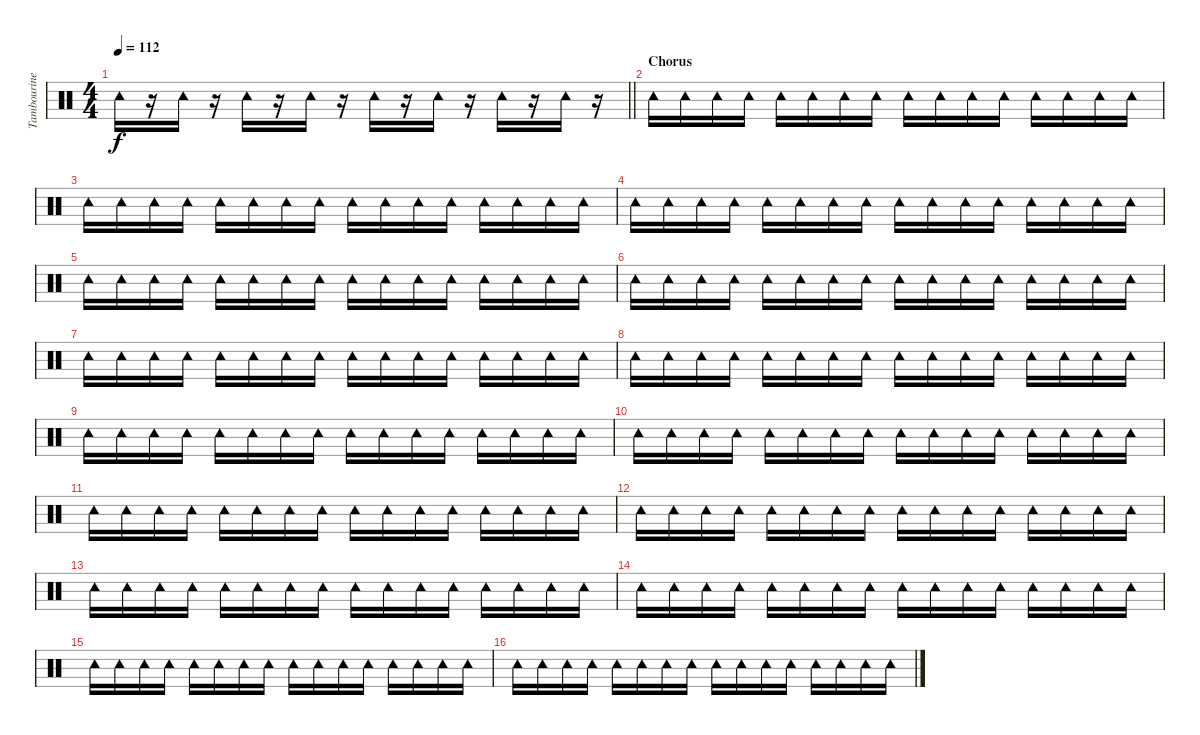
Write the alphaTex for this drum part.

\track ("Tambourine" "Tambourine") {instrument percussion}
\staff {score}
\articulation defaults
\ts (4 4)
\tempo 112
\clef neutral
\barLineRight lightlight
\ks c "Tambourine (hit)".16{dy f}
r.16 "Tambourine (hit)".16 r.16 "Tambourine (hit)".16 r.16 "Tambourine (hit)".16 r.16 "Tambourine (hit)".16 r.16 "Tambourine (hit)".16 r.16 "Tambourine (hit)".16 r.16 "Tambourine (hit)".16 r.16 |
\section ("" "Chorus")
"Tambourine (hit)".16 "Tambourine (hit)".16 "Tambourine (hit)".16 "Tambourine (hit)".16 "Tambourine (hit)".16 "Tambourine (hit)".16 "Tambourine (hit)".16 "Tambourine (hit)".16 "Tambourine (hit)".16 "Tambourine (hit)".16 "Tambourine (hit)".16 "Tambourine (hit)".16 "Tambourine (hit)".16 "Tambourine (hit)".16 "Tambourine (hit)".16 "Tambourine (hit)".16 |
"Tambourine (hit)".16 "Tambourine (hit)".16 "Tambourine (hit)".16 "Tambourine (hit)".16 "Tambourine (hit)".16 "Tambourine (hit)".16 "Tambourine (hit)".16 "Tambourine (hit)".16 "Tambourine (hit)".16 "Tambourine (hit)".16 "Tambourine (hit)".16 "Tambourine (hit)".16 "Tambourine (hit)".16 "Tambourine (hit)".16 "Tambourine (hit)".16 "Tambourine (hit)".16 |
"Tambourine (hit)".16 "Tambourine (hit)".16 "Tambourine (hit)".16 "Tambourine (hit)".16 "Tambourine (hit)".16 "Tambourine (hit)".16 "Tambourine (hit)".16 "Tambourine (hit)".16 "Tambourine (hit)".16 "Tambourine (hit)".16 "Tambourine (hit)".16 "Tambourine (hit)".16 "Tambourine (hit)".16 "Tambourine (hit)".16 "Tambourine (hit)".16 "Tambourine (hit)".16 |
"Tambourine (hit)".16 "Tambourine (hit)".16 "Tambourine (hit)".16 "Tambourine (hit)".16 "Tambourine (hit)".16 "Tambourine (hit)".16 "Tambourine (hit)".16 "Tambourine (hit)".16 "Tambourine (hit)".16 "Tambourine (hit)".16 "Tambourine (hit)".16 "Tambourine (hit)".16 "Tambourine (hit)".16 "Tambourine (hit)".16 "Tambourine (hit)".16 "Tambourine (hit)".16 |
"Tambourine (hit)".16 "Tambourine (hit)".16 "Tambourine (hit)".16 "Tambourine (hit)".16 "Tambourine (hit)".16 "Tambourine (hit)".16 "Tambourine (hit)".16 "Tambourine (hit)".16 "Tambourine (hit)".16 "Tambourine (hit)".16 "Tambourine (hit)".16 "Tambourine (hit)".16 "Tambourine (hit)".16 "Tambourine (hit)".16 "Tambourine (hit)".16 "Tambourine (hit)".16 |
"Tambourine (hit)".16 "Tambourine (hit)".16 "Tambourine (hit)".16 "Tambourine (hit)".16 "Tambourine (hit)".16 "Tambourine (hit)".16 "Tambourine (hit)".16 "Tambourine (hit)".16 "Tambourine (hit)".16 "Tambourine (hit)".16 "Tambourine (hit)".16 "Tambourine (hit)".16 "Tambourine (hit)".16 "Tambourine (hit)".16 "Tambourine (hit)".16 "Tambourine (hit)".16 |
"Tambourine (hit)".16 "Tambourine (hit)".16 "Tambourine (hit)".16 "Tambourine (hit)".16 "Tambourine (hit)".16 "Tambourine (hit)".16 "Tambourine (hit)".16 "Tambourine (hit)".16 "Tambourine (hit)".16 "Tambourine (hit)".16 "Tambourine (hit)".16 "Tambourine (hit)".16 "Tambourine (hit)".16 "Tambourine (hit)".16 "Tambourine (hit)".16 "Tambourine (hit)".16 |
"Tambourine (hit)".16 "Tambourine (hit)".16 "Tambourine (hit)".16 "Tambourine (hit)".16 "Tambourine (hit)".16 "Tambourine (hit)".16 "Tambourine (hit)".16 "Tambourine (hit)".16 "Tambourine (hit)".16 "Tambourine (hit)".16 "Tambourine (hit)".16 "Tambourine (hit)".16 "Tambourine (hit)".16 "Tambourine (hit)".16 "Tambourine (hit)".16 "Tambourine (hit)".16 |
"Tambourine (hit)".16 "Tambourine (hit)".16 "Tambourine (hit)".16 "Tambourine (hit)".16 "Tambourine (hit)".16 "Tambourine (hit)".16 "Tambourine (hit)".16 "Tambourine (hit)".16 "Tambourine (hit)".16 "Tambourine (hit)".16 "Tambourine (hit)".16 "Tambourine (hit)".16 "Tambourine (hit)".16 "Tambourine (hit)".16 "Tambourine (hit)".16 "Tambourine (hit)".16 |
"Tambourine (hit)".16 "Tambourine (hit)".16 "Tambourine (hit)".16 "Tambourine (hit)".16 "Tambourine (hit)".16 "Tambourine (hit)".16 "Tambourine (hit)".16 "Tambourine (hit)".16 "Tambourine (hit)".16 "Tambourine (hit)".16 "Tambourine (hit)".16 "Tambourine (hit)".16 "Tambourine (hit)".16 "Tambourine (hit)".16 "Tambourine (hit)".16 "Tambourine (hit)".16 |
"Tambourine (hit)".16 "Tambourine (hit)".16 "Tambourine (hit)".16 "Tambourine (hit)".16 "Tambourine (hit)".16 "Tambourine (hit)".16 "Tambourine (hit)".16 "Tambourine (hit)".16 "Tambourine (hit)".16 "Tambourine (hit)".16 "Tambourine (hit)".16 "Tambourine (hit)".16 "Tambourine (hit)".16 "Tambourine (hit)".16 "Tambourine (hit)".16 "Tambourine (hit)".16 |
"Tambourine (hit)".16 "Tambourine (hit)".16 "Tambourine (hit)".16 "Tambourine (hit)".16 "Tambourine (hit)".16 "Tambourine (hit)".16 "Tambourine (hit)".16 "Tambourine (hit)".16 "Tambourine (hit)".16 "Tambourine (hit)".16 "Tambourine (hit)".16 "Tambourine (hit)".16 "Tambourine (hit)".16 "Tambourine (hit)".16 "Tambourine (hit)".16 "Tambourine (hit)".16 |
"Tambourine (hit)".16 "Tambourine (hit)".16 "Tambourine (hit)".16 "Tambourine (hit)".16 "Tambourine (hit)".16 "Tambourine (hit)".16 "Tambourine (hit)".16 "Tambourine (hit)".16 "Tambourine (hit)".16 "Tambourine (hit)".16 "Tambourine (hit)".16 "Tambourine (hit)".16 "Tambourine (hit)".16 "Tambourine (hit)".16 "Tambourine (hit)".16 "Tambourine (hit)".16 |
"Tambourine (hit)".16 "Tambourine (hit)".16 "Tambourine (hit)".16 "Tambourine (hit)".16 "Tambourine (hit)".16 "Tambourine (hit)".16 "Tambourine (hit)".16 "Tambourine (hit)".16 "Tambourine (hit)".16 "Tambourine (hit)".16 "Tambourine (hit)".16 "Tambourine (hit)".16 "Tambourine (hit)".16 "Tambourine (hit)".16 "Tambourine (hit)".16 "Tambourine (hit)".16 |
"Tambourine (hit)".16 "Tambourine (hit)".16 "Tambourine (hit)".16 "Tambourine (hit)".16 "Tambourine (hit)".16 "Tambourine (hit)".16 "Tambourine (hit)".16 "Tambourine (hit)".16 "Tambourine (hit)".16 "Tambourine (hit)".16 "Tambourine (hit)".16 "Tambourine (hit)".16 "Tambourine (hit)".16 "Tambourine (hit)".16 "Tambourine (hit)".16 "Tambourine (hit)".16
